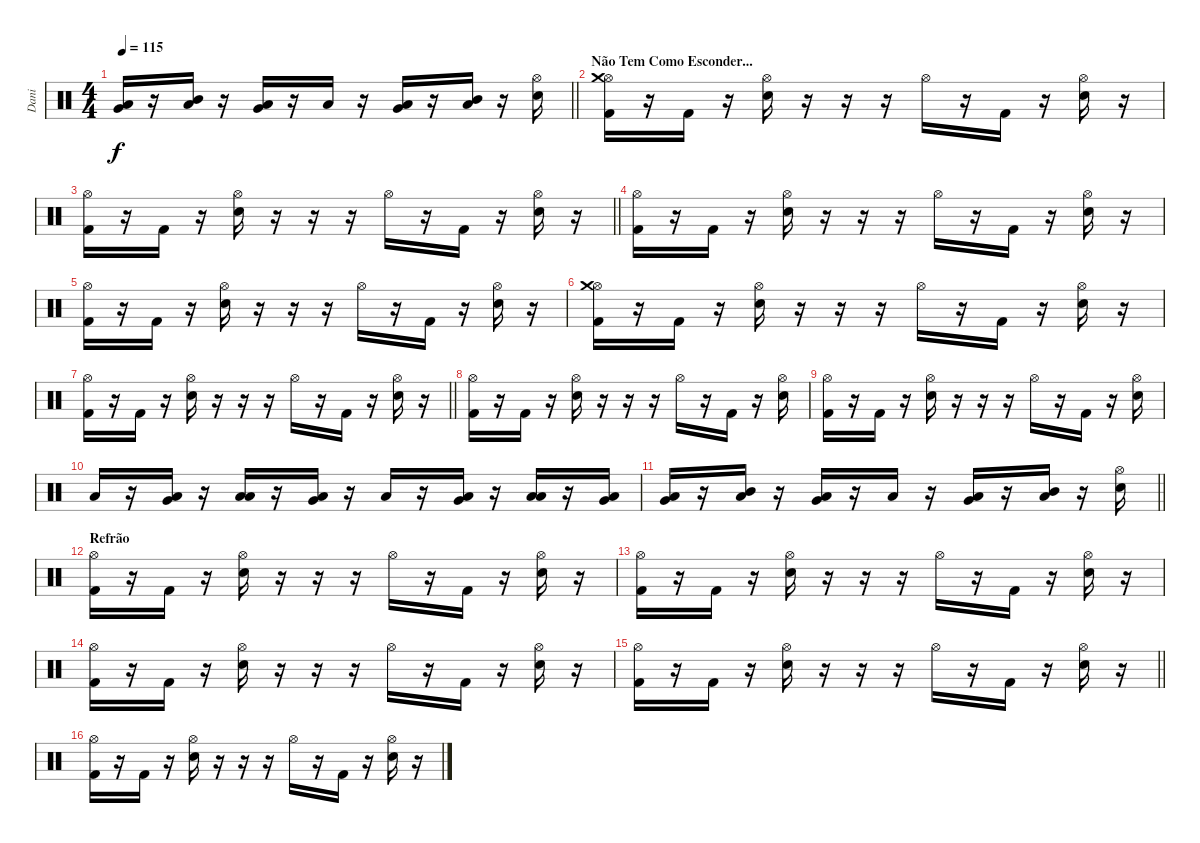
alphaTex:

\track ("Dani" "Dani") {instrument percussion}
\staff {score}
\articulation defaults
\ts (4 4)
\tempo 115
\clef neutral
\barLineRight lightlight
\ks c
("Very Low Tom (hit)" "Low Floor Tom (hit)").16{dy f} r.16 ("Mid Tom (hit)" "Low Floor Tom (hit)").16 r.16 ("Very Low Tom (hit)" "Low Floor Tom (hit)").16 r.16 "Low Floor Tom (hit)".16 r.16 ("Very Low Tom (hit)" "Low Floor Tom (hit)").16 r.16 ("Mid Tom (hit)" "Low Floor Tom (hit)").16 r.16 ("Hi-Hat (open)" "Snare (hit) 2").16 |
\section ("" "Não Tem Como Esconder...")
("Hi-Hat (open)" "Crash medium (hit)" "Kick (hit) 2").16 r.16 "Kick (hit) 2".16 r.16 ("Hi-Hat (open)" "Snare (hit) 2").16 r.16 r.16 r.16 "Hi-Hat (open)".16 r.16 "Kick (hit) 2".16 r.16 ("Hi-Hat (open)" "Snare (hit) 2").16 r.16 |
\barLineRight lightlight
("Hi-Hat (open)" "Kick (hit) 2").16 r.16 "Kick (hit) 2".16 r.16 ("Hi-Hat (open)" "Snare (hit) 2").16 r.16 r.16 r.16 "Hi-Hat (open)".16 r.16 "Kick (hit) 2".16 r.16 ("Hi-Hat (open)" "Snare (hit) 2").16 r.16 |
("Hi-Hat (open)" "Kick (hit) 2").16 r.16 "Kick (hit) 2".16 r.16 ("Hi-Hat (open)" "Snare (hit) 2").16 r.16 r.16 r.16 "Hi-Hat (open)".16 r.16 "Kick (hit) 2".16 r.16 ("Hi-Hat (open)" "Snare (hit) 2").16 r.16 |
("Hi-Hat (open)" "Kick (hit) 2").16 r.16 "Kick (hit) 2".16 r.16 ("Hi-Hat (open)" "Snare (hit) 2").16 r.16 r.16 r.16 "Hi-Hat (open)".16 r.16 "Kick (hit) 2".16 r.16 ("Hi-Hat (open)" "Snare (hit) 2").16 r.16 |
("Hi-Hat (open)" "Crash medium (hit)" "Kick (hit) 2").16 r.16 "Kick (hit) 2".16 r.16 ("Hi-Hat (open)" "Snare (hit) 2").16 r.16 r.16 r.16 "Hi-Hat (open)".16 r.16 "Kick (hit) 2".16 r.16 ("Hi-Hat (open)" "Snare (hit) 2").16 r.16 |
\barLineRight lightlight
("Hi-Hat (open)" "Kick (hit) 2").16 r.16 "Kick (hit) 2".16 r.16 ("Hi-Hat (open)" "Snare (hit) 2").16 r.16 r.16 r.16 "Hi-Hat (open)".16 r.16 "Kick (hit) 2".16 r.16 ("Hi-Hat (open)" "Snare (hit) 2").16 r.16 |
("Hi-Hat (open)" "Kick (hit) 2").16 r.16 "Kick (hit) 2".16 r.16 ("Hi-Hat (open)" "Snare (hit) 2").16 r.16 r.16 r.16 "Hi-Hat (open)".16 r.16 "Kick (hit) 2".16 r.16 ("Hi-Hat (open)" "Snare (hit) 2").16 |
("Hi-Hat (open)" "Kick (hit) 2").16 r.16 "Kick (hit) 2".16 r.16 ("Hi-Hat (open)" "Snare (hit) 2").16 r.16 r.16 r.16 "Hi-Hat (open)".16 r.16 "Kick (hit) 2".16 r.16 ("Hi-Hat (open)" "Snare (hit) 2").16 |
"Low Floor Tom (hit)".16 r.16 ("Very Low Tom (hit)" "Low Floor Tom (hit)").16 r.16 ("Low Tom (hit)" "Low Floor Tom (hit)").16 r.16 ("Very Low Tom (hit)" "Low Floor Tom (hit)").16 r.16 "Low Floor Tom (hit)".16 r.16 ("Very Low Tom (hit)" "Low Floor Tom (hit)").16 r.16 ("Low Tom (hit)" "Low Floor Tom (hit)").16 r.16 ("Very Low Tom (hit)" "Low Floor Tom (hit)").16 |
\barLineRight lightlight
("Very Low Tom (hit)" "Low Floor Tom (hit)").16 r.16 ("Mid Tom (hit)" "Low Floor Tom (hit)").16 r.16 ("Very Low Tom (hit)" "Low Floor Tom (hit)").16 r.16 "Low Floor Tom (hit)".16 r.16 ("Very Low Tom (hit)" "Low Floor Tom (hit)").16 r.16 ("Mid Tom (hit)" "Low Floor Tom (hit)").16 r.16 ("Hi-Hat (open)" "Snare (hit) 2").16 |
\section ("" "Refrão")
("Hi-Hat (open)" "Kick (hit) 2").16 r.16 "Kick (hit) 2".16 r.16 ("Hi-Hat (open)" "Snare (hit) 2").16 r.16 r.16 r.16 "Hi-Hat (open)".16 r.16 "Kick (hit) 2".16 r.16 ("Hi-Hat (open)" "Snare (hit) 2").16 r.16 |
("Hi-Hat (open)" "Kick (hit) 2").16 r.16 "Kick (hit) 2".16 r.16 ("Hi-Hat (open)" "Snare (hit) 2").16 r.16 r.16 r.16 "Hi-Hat (open)".16 r.16 "Kick (hit) 2".16 r.16 ("Hi-Hat (open)" "Snare (hit) 2").16 r.16 |
("Hi-Hat (open)" "Kick (hit) 2").16 r.16 "Kick (hit) 2".16 r.16 ("Hi-Hat (open)" "Snare (hit) 2").16 r.16 r.16 r.16 "Hi-Hat (open)".16 r.16 "Kick (hit) 2".16 r.16 ("Hi-Hat (open)" "Snare (hit) 2").16 r.16 |
\barLineRight lightlight
("Hi-Hat (open)" "Kick (hit) 2").16 r.16 "Kick (hit) 2".16 r.16 ("Hi-Hat (open)" "Snare (hit) 2").16 r.16 r.16 r.16 "Hi-Hat (open)".16 r.16 "Kick (hit) 2".16 r.16 ("Hi-Hat (open)" "Snare (hit) 2").16 r.16 |
("Hi-Hat (open)" "Kick (hit) 2").16 r.16 "Kick (hit) 2".16 r.16 ("Hi-Hat (open)" "Snare (hit) 2").16 r.16 r.16 r.16 "Hi-Hat (open)".16 r.16 "Kick (hit) 2".16 r.16 ("Hi-Hat (open)" "Snare (hit) 2").16 r.16
